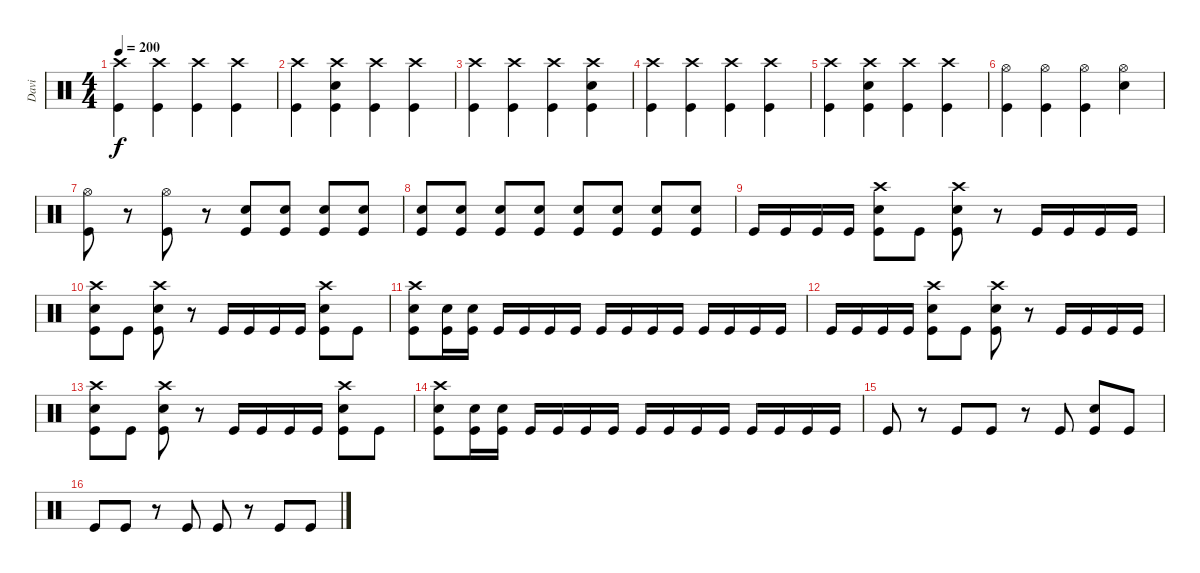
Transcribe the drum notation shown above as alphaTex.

\track ("Davi" "Davi") {instrument percussion}
\staff {score}
\articulation defaults
\ts (4 4)
\tempo 200
\clef neutral
\ks c
("Crash high (hit)" "Kick (hit)").4{dy f} ("Crash high (hit)" "Kick (hit)").4 ("Crash high (hit)" "Kick (hit)").4 ("Crash high (hit)" "Kick (hit)").4 |
("Crash high (hit)" "Kick (hit)").4 ("Crash high (hit)" "Electric Snare (hit)" "Kick (hit)").4 ("Crash high (hit)" "Kick (hit)").4 ("Crash high (hit)" "Kick (hit)").4 |
("Crash high (hit)" "Kick (hit)").4 ("Crash high (hit)" "Kick (hit)").4 ("Crash high (hit)" "Kick (hit)").4 ("Crash high (hit)" "Electric Snare (hit)" "Kick (hit)").4 |
("Crash high (hit)" "Kick (hit)").4 ("Crash high (hit)" "Kick (hit)").4 ("Crash high (hit)" "Kick (hit)").4 ("Crash high (hit)" "Kick (hit)").4 |
("Crash high (hit)" "Kick (hit)").4 ("Crash high (hit)" "Electric Snare (hit)" "Kick (hit)").4 ("Crash high (hit)" "Kick (hit)").4 ("Crash high (hit)" "Kick (hit)").4 |
("Hi-Hat (open)" "Kick (hit)").4 ("Hi-Hat (open)" "Kick (hit)").4 ("Hi-Hat (open)" "Kick (hit)").4 ("Hi-Hat (open)" "Electric Snare (hit)").4 |
("Hi-Hat (open)" "Kick (hit)").8 r.8 ("Hi-Hat (open)" "Kick (hit)").8 r.8 ("Electric Snare (hit)" "Kick (hit)").8 ("Electric Snare (hit)" "Kick (hit)").8 ("Electric Snare (hit)" "Kick (hit)").8 ("Electric Snare (hit)" "Kick (hit)").8 |
("Electric Snare (hit)" "Kick (hit)").8 ("Electric Snare (hit)" "Kick (hit)").8 ("Electric Snare (hit)" "Kick (hit)").8 ("Electric Snare (hit)" "Kick (hit)").8 ("Electric Snare (hit)" "Kick (hit)").8 ("Electric Snare (hit)" "Kick (hit)").8 ("Electric Snare (hit)" "Kick (hit)").8 ("Electric Snare (hit)" "Kick (hit)").8 |
"Kick (hit)".16 "Kick (hit)".16 "Kick (hit)".16 "Kick (hit)".16 ("Crash high (hit)" "Electric Snare (hit)" "Kick (hit)").8 "Kick (hit)".8 ("Crash high (hit)" "Electric Snare (hit)" "Kick (hit)").8 r.8 "Kick (hit)".16 "Kick (hit)".16 "Kick (hit)".16 "Kick (hit)".16 |
("Crash high (hit)" "Electric Snare (hit)" "Kick (hit)").8 "Kick (hit)".8 ("Crash high (hit)" "Electric Snare (hit)" "Kick (hit)").8 r.8 "Kick (hit)".16 "Kick (hit)".16 "Kick (hit)".16 "Kick (hit)".16 ("Crash high (hit)" "Electric Snare (hit)" "Kick (hit)").8 "Kick (hit)".8 |
("Crash high (hit)" "Electric Snare (hit)" "Kick (hit)").8 ("Electric Snare (hit)" "Kick (hit)").16 ("Electric Snare (hit)" "Kick (hit)").16 "Kick (hit)".16 "Kick (hit)".16 "Kick (hit)".16 "Kick (hit)".16 "Kick (hit)".16 "Kick (hit)".16 "Kick (hit)".16 "Kick (hit)".16 "Kick (hit)".16 "Kick (hit)".16 "Kick (hit)".16 "Kick (hit)".16 |
"Kick (hit)".16 "Kick (hit)".16 "Kick (hit)".16 "Kick (hit)".16 ("Crash high (hit)" "Electric Snare (hit)" "Kick (hit)").8 "Kick (hit)".8 ("Crash high (hit)" "Electric Snare (hit)" "Kick (hit)").8 r.8 "Kick (hit)".16 "Kick (hit)".16 "Kick (hit)".16 "Kick (hit)".16 |
("Crash high (hit)" "Electric Snare (hit)" "Kick (hit)").8 "Kick (hit)".8 ("Crash high (hit)" "Electric Snare (hit)" "Kick (hit)").8 r.8 "Kick (hit)".16 "Kick (hit)".16 "Kick (hit)".16 "Kick (hit)".16 ("Crash high (hit)" "Electric Snare (hit)" "Kick (hit)").8 "Kick (hit)".8 |
("Crash high (hit)" "Electric Snare (hit)" "Kick (hit)").8 ("Electric Snare (hit)" "Kick (hit)").16 ("Electric Snare (hit)" "Kick (hit)").16 "Kick (hit)".16 "Kick (hit)".16 "Kick (hit)".16 "Kick (hit)".16 "Kick (hit)".16 "Kick (hit)".16 "Kick (hit)".16 "Kick (hit)".16 "Kick (hit)".16 "Kick (hit)".16 "Kick (hit)".16 "Kick (hit)".16 |
"Kick (hit)".8 r.8 "Kick (hit)".8 "Kick (hit)".8 r.8 "Kick (hit)".8 ("Electric Snare (hit)" "Kick (hit)").8 "Kick (hit)".8 |
"Kick (hit)".8 "Kick (hit)".8 r.8 "Kick (hit)".8 "Kick (hit)".8 r.8 "Kick (hit)".8 "Kick (hit)".8
